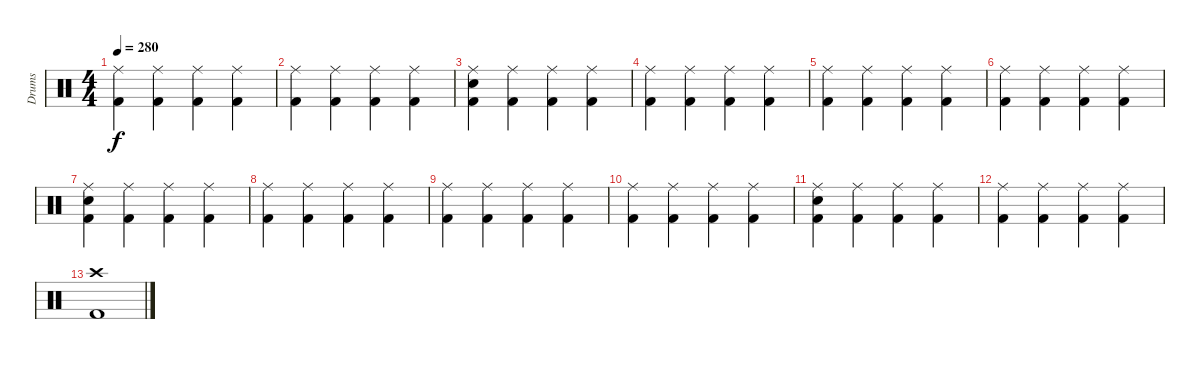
\track ("Drums" "Drums") {instrument percussion}
\staff {score}
\articulation defaults
\ts (4 4)
\tempo 280
\clef neutral
\ks c
("Ride (middle)" "Kick (hit) 2").4{dy f} ("Ride (middle)" "Kick (hit) 2").4 ("Ride (middle)" "Kick (hit) 2").4 ("Ride (middle)" "Kick (hit) 2").4 |
("Ride (middle)" "Kick (hit) 2").4 ("Ride (middle)" "Kick (hit) 2").4 ("Ride (middle)" "Kick (hit) 2").4 ("Ride (middle)" "Kick (hit) 2").4 |
("Ride (middle)" "Electric Snare (hit)" "Kick (hit) 2").4 ("Ride (middle)" "Kick (hit) 2").4 ("Ride (middle)" "Kick (hit) 2").4 ("Ride (middle)" "Kick (hit) 2").4 |
("Ride (middle)" "Kick (hit) 2").4 ("Ride (middle)" "Kick (hit) 2").4 ("Ride (middle)" "Kick (hit) 2").4 ("Ride (middle)" "Kick (hit) 2").4 |
("Ride (middle)" "Kick (hit) 2").4 ("Ride (middle)" "Kick (hit) 2").4 ("Ride (middle)" "Kick (hit) 2").4 ("Ride (middle)" "Kick (hit) 2").4 |
("Ride (middle)" "Kick (hit) 2").4 ("Ride (middle)" "Kick (hit) 2").4 ("Ride (middle)" "Kick (hit) 2").4 ("Ride (middle)" "Kick (hit) 2").4 |
("Ride (middle)" "Electric Snare (hit)" "Kick (hit) 2").4 ("Ride (middle)" "Kick (hit) 2").4 ("Ride (middle)" "Kick (hit) 2").4 ("Ride (middle)" "Kick (hit) 2").4 |
("Ride (middle)" "Kick (hit) 2").4 ("Ride (middle)" "Kick (hit) 2").4 ("Ride (middle)" "Kick (hit) 2").4 ("Ride (middle)" "Kick (hit) 2").4 |
("Ride (middle)" "Kick (hit) 2").4 ("Ride (middle)" "Kick (hit) 2").4 ("Ride (middle)" "Kick (hit) 2").4 ("Ride (middle)" "Kick (hit) 2").4 |
("Ride (middle)" "Kick (hit) 2").4 ("Ride (middle)" "Kick (hit) 2").4 ("Ride (middle)" "Kick (hit) 2").4 ("Ride (middle)" "Kick (hit) 2").4 |
("Ride (middle)" "Electric Snare (hit)" "Kick (hit) 2").4 ("Ride (middle)" "Kick (hit) 2").4 ("Ride (middle)" "Kick (hit) 2").4 ("Ride (middle)" "Kick (hit) 2").4 |
("Ride (middle)" "Kick (hit) 2").4 ("Ride (middle)" "Kick (hit) 2").4 ("Ride (middle)" "Kick (hit) 2").4 ("Ride (middle)" "Kick (hit) 2").4 |
("Crash high (hit)" "Kick (hit) 2").1
